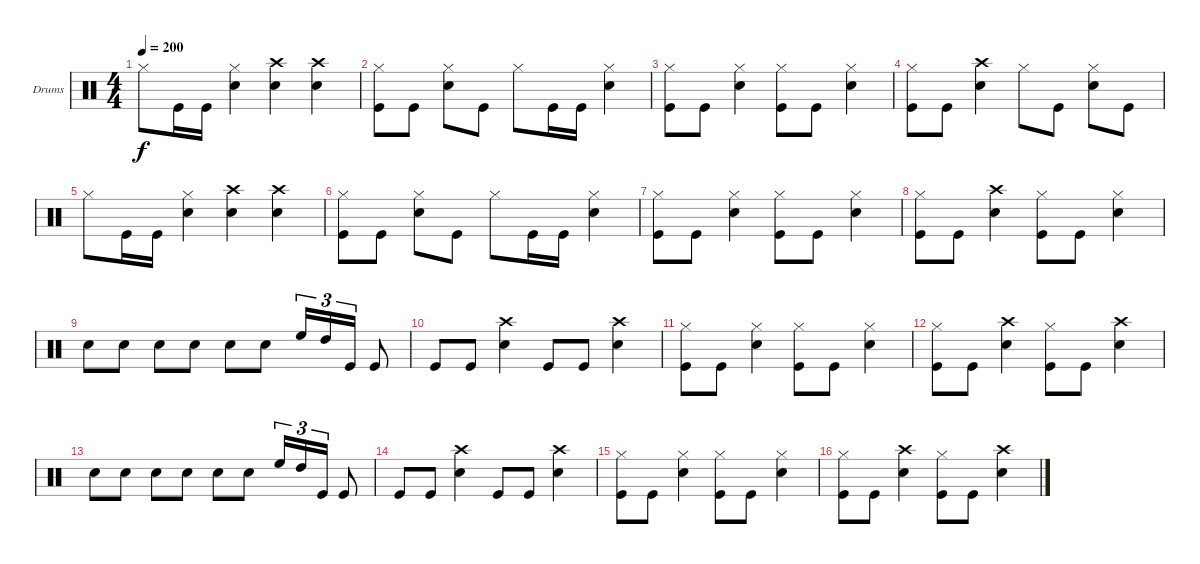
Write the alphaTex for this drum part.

\bracketExtendMode groupsimilarinstruments
\firstSystemTrackNameOrientation horizontal
\otherSystemsTrackNameOrientation horizontal
\track ("Drumkit" "Drums") {instrument percussion}
\staff {score}
\articulation defaults
\ts (4 4)
\tempo 200
\clef neutral
\ks c "Hi-Hat (closed)".8{dy f} "Kick (hit)".16 "Kick (hit)".16
("Snare (hit) 2" "Hi-Hat (closed)").4 ("Crash high (hit)" "Snare (hit) 2").4 ("Crash high (hit)" "Snare (hit) 2").4 |
("Kick (hit)" "Hi-Hat (closed)").8 "Kick (hit)".8 ("Snare (hit) 2" "Hi-Hat (closed)").8 "Kick (hit)".8 "Hi-Hat (closed)".8 "Kick (hit)".16 "Kick (hit)".16 ("Snare (hit) 2" "Hi-Hat (closed)").4 |
("Kick (hit)" "Hi-Hat (closed)").8 "Kick (hit)".8 ("Snare (hit) 2" "Hi-Hat (closed)").4 ("Kick (hit)" "Hi-Hat (closed)").8 "Kick (hit)".8 ("Snare (hit) 2" "Hi-Hat (closed)").4 |
("Kick (hit)" "Hi-Hat (closed)").8 "Kick (hit)".8 ("Crash high (hit)" "Snare (hit) 2").4 "Hi-Hat (closed)".8 "Kick (hit)".8 ("Snare (hit) 2" "Hi-Hat (closed)").8 "Kick (hit)".8 |
"Hi-Hat (closed)".8 "Kick (hit)".16 "Kick (hit)".16 ("Snare (hit) 2" "Hi-Hat (closed)").4 ("Crash high (hit)" "Snare (hit) 2").4 ("Crash high (hit)" "Snare (hit) 2").4 |
("Kick (hit)" "Hi-Hat (closed)").8 "Kick (hit)".8 ("Snare (hit) 2" "Hi-Hat (closed)").8 "Kick (hit)".8 "Hi-Hat (closed)".8 "Kick (hit)".16 "Kick (hit)".16 ("Snare (hit) 2" "Hi-Hat (closed)").4 |
("Kick (hit)" "Hi-Hat (closed)").8 "Kick (hit)".8 ("Snare (hit) 2" "Hi-Hat (closed)").4 ("Kick (hit)" "Hi-Hat (closed)").8 "Kick (hit)".8 ("Snare (hit) 2" "Hi-Hat (closed)").4 |
("Kick (hit)" "Hi-Hat (closed)").8 "Kick (hit)".8 ("Crash high (hit)" "Snare (hit) 2").4 ("Kick (hit)" "Hi-Hat (closed)").8 "Kick (hit)".8 ("Snare (hit) 2" "Hi-Hat (closed)").4 |
"Snare (hit) 2".8 "Snare (hit) 2".8 "Snare (hit) 2".8 "Snare (hit) 2".8 "Snare (hit) 2".8 "Snare (hit) 2".8 "High Floor Tom (hit)".16{tu (3 2)} "High Tom (hit)".16{tu (3 2)} "Kick (hit)".16{tu (3 2)} "Kick (hit)".8 |
"Kick (hit)".8 "Kick (hit)".8 ("Crash high (hit)" "Snare (hit) 2").4 "Kick (hit)".8 "Kick (hit)".8 ("Crash high (hit)" "Snare (hit) 2").4 |
("Kick (hit)" "Hi-Hat (closed)").8 "Kick (hit)".8 ("Snare (hit) 2" "Hi-Hat (closed)").4 ("Kick (hit)" "Hi-Hat (closed)").8 "Kick (hit)".8 ("Snare (hit) 2" "Hi-Hat (closed)").4 |
("Kick (hit)" "Hi-Hat (closed)").8 "Kick (hit)".8 ("Snare (hit) 2" "Crash high (hit)").4 ("Kick (hit)" "Hi-Hat (closed)").8 "Kick (hit)".8 ("Crash high (hit)" "Snare (hit) 2").4 |
"Snare (hit) 2".8 "Snare (hit) 2".8 "Snare (hit) 2".8 "Snare (hit) 2".8 "Snare (hit) 2".8 "Snare (hit) 2".8 "High Floor Tom (hit)".16{tu (3 2)} "High Tom (hit)".16{tu (3 2)} "Kick (hit)".16{tu (3 2)} "Kick (hit)".8 |
"Kick (hit)".8 "Kick (hit)".8 ("Crash high (hit)" "Snare (hit) 2").4 "Kick (hit)".8 "Kick (hit)".8 ("Crash high (hit)" "Snare (hit) 2").4 |
("Kick (hit)" "Hi-Hat (closed)").8 "Kick (hit)".8 ("Snare (hit) 2" "Hi-Hat (closed)").4 ("Kick (hit)" "Hi-Hat (closed)").8 "Kick (hit)".8 ("Snare (hit) 2" "Hi-Hat (closed)").4 |
("Kick (hit)" "Hi-Hat (closed)").8 "Kick (hit)".8 ("Snare (hit) 2" "Crash high (hit)").4 ("Kick (hit)" "Hi-Hat (closed)").8 "Kick (hit)".8 ("Crash high (hit)" "Snare (hit) 2").4
